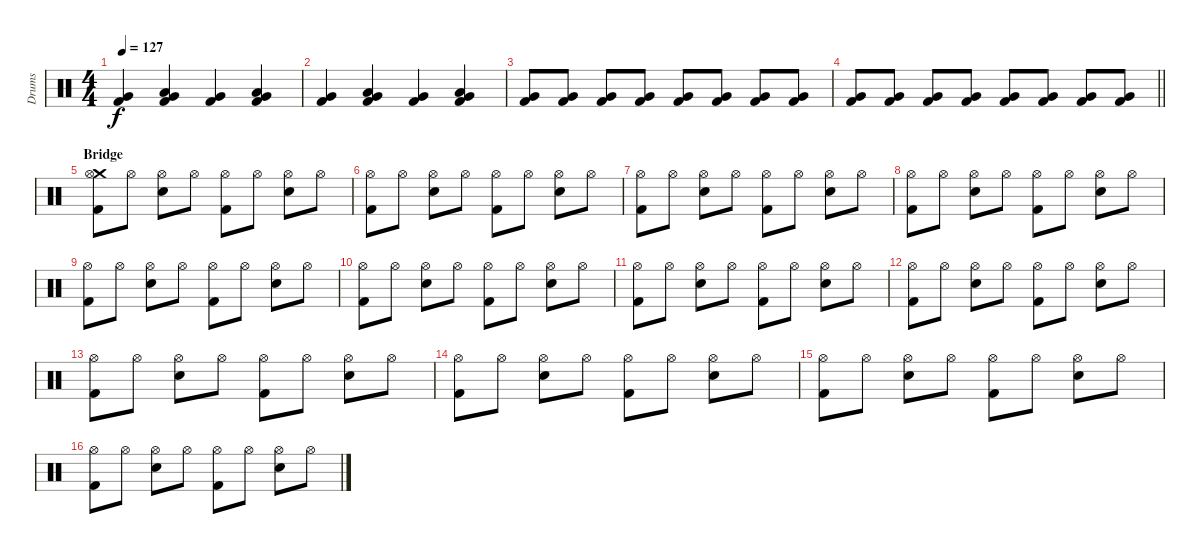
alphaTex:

\track ("Drums" "Drums") {instrument percussion}
\staff {score}
\articulation defaults
\ts (4 4)
\tempo 127
\clef neutral
\ks c
("Very Low Tom (hit)" "Kick (hit) 2").4{dy f} ("Low Floor Tom (hit)" "Very Low Tom (hit)" "Kick (hit) 2").4 ("Very Low Tom (hit)" "Kick (hit) 2").4 ("Low Floor Tom (hit)" "Very Low Tom (hit)" "Kick (hit) 2").4 |
("Very Low Tom (hit)" "Kick (hit) 2").4 ("Low Floor Tom (hit)" "Very Low Tom (hit)" "Kick (hit) 2").4 ("Very Low Tom (hit)" "Kick (hit) 2").4 ("Low Floor Tom (hit)" "Very Low Tom (hit)" "Kick (hit) 2").4 |
("Very Low Tom (hit)" "Kick (hit) 2").8 ("Very Low Tom (hit)" "Kick (hit) 2").8 ("Very Low Tom (hit)" "Kick (hit) 2").8 ("Very Low Tom (hit)" "Kick (hit) 2").8 ("Very Low Tom (hit)" "Kick (hit) 2").8 ("Very Low Tom (hit)" "Kick (hit) 2").8 ("Very Low Tom (hit)" "Kick (hit) 2").8 ("Very Low Tom (hit)" "Kick (hit) 2").8 |
\barLineRight lightlight
("Very Low Tom (hit)" "Kick (hit) 2").8 ("Very Low Tom (hit)" "Kick (hit) 2").8 ("Very Low Tom (hit)" "Kick (hit) 2").8 ("Very Low Tom (hit)" "Kick (hit) 2").8 ("Very Low Tom (hit)" "Kick (hit) 2").8 ("Very Low Tom (hit)" "Kick (hit) 2").8 ("Very Low Tom (hit)" "Kick (hit) 2").8 ("Very Low Tom (hit)" "Kick (hit) 2").8 |
\section ("" "Bridge")
("Crash medium (hit)" "Hi-Hat (open)" "Kick (hit) 2").8 "Hi-Hat (open)".8 ("Hi-Hat (open)" "Electric Snare (hit)").8 "Hi-Hat (open)".8 ("Hi-Hat (open)" "Kick (hit) 2").8 "Hi-Hat (open)".8 ("Hi-Hat (open)" "Electric Snare (hit)").8 "Hi-Hat (open)".8 |
("Hi-Hat (open)" "Kick (hit) 2").8 "Hi-Hat (open)".8 ("Hi-Hat (open)" "Electric Snare (hit)").8 "Hi-Hat (open)".8 ("Hi-Hat (open)" "Kick (hit) 2").8 "Hi-Hat (open)".8 ("Hi-Hat (open)" "Electric Snare (hit)").8 "Hi-Hat (open)".8 |
("Hi-Hat (open)" "Kick (hit) 2").8 "Hi-Hat (open)".8 ("Hi-Hat (open)" "Electric Snare (hit)").8 "Hi-Hat (open)".8 ("Hi-Hat (open)" "Kick (hit) 2").8 "Hi-Hat (open)".8 ("Hi-Hat (open)" "Electric Snare (hit)").8 "Hi-Hat (open)".8 |
("Hi-Hat (open)" "Kick (hit) 2").8 "Hi-Hat (open)".8 ("Hi-Hat (open)" "Electric Snare (hit)").8 "Hi-Hat (open)".8 ("Hi-Hat (open)" "Kick (hit) 2").8 "Hi-Hat (open)".8 ("Hi-Hat (open)" "Electric Snare (hit)").8 "Hi-Hat (open)".8 |
("Hi-Hat (open)" "Kick (hit) 2").8 "Hi-Hat (open)".8 ("Hi-Hat (open)" "Electric Snare (hit)").8 "Hi-Hat (open)".8 ("Hi-Hat (open)" "Kick (hit) 2").8 "Hi-Hat (open)".8 ("Hi-Hat (open)" "Electric Snare (hit)").8 "Hi-Hat (open)".8 |
("Hi-Hat (open)" "Kick (hit) 2").8 "Hi-Hat (open)".8 ("Hi-Hat (open)" "Electric Snare (hit)").8 "Hi-Hat (open)".8 ("Hi-Hat (open)" "Kick (hit) 2").8 "Hi-Hat (open)".8 ("Hi-Hat (open)" "Electric Snare (hit)").8 "Hi-Hat (open)".8 |
("Hi-Hat (open)" "Kick (hit) 2").8 "Hi-Hat (open)".8 ("Hi-Hat (open)" "Electric Snare (hit)").8 "Hi-Hat (open)".8 ("Hi-Hat (open)" "Kick (hit) 2").8 "Hi-Hat (open)".8 ("Hi-Hat (open)" "Electric Snare (hit)").8 "Hi-Hat (open)".8 |
("Hi-Hat (open)" "Kick (hit) 2").8 "Hi-Hat (open)".8 ("Hi-Hat (open)" "Electric Snare (hit)").8 "Hi-Hat (open)".8 ("Hi-Hat (open)" "Kick (hit) 2").8 "Hi-Hat (open)".8 ("Hi-Hat (open)" "Electric Snare (hit)").8 "Hi-Hat (open)".8 |
("Hi-Hat (open)" "Kick (hit) 2").8 "Hi-Hat (open)".8 ("Hi-Hat (open)" "Electric Snare (hit)").8 "Hi-Hat (open)".8 ("Hi-Hat (open)" "Kick (hit) 2").8 "Hi-Hat (open)".8 ("Hi-Hat (open)" "Electric Snare (hit)").8 "Hi-Hat (open)".8 |
("Hi-Hat (open)" "Kick (hit) 2").8 "Hi-Hat (open)".8 ("Hi-Hat (open)" "Electric Snare (hit)").8 "Hi-Hat (open)".8 ("Hi-Hat (open)" "Kick (hit) 2").8 "Hi-Hat (open)".8 ("Hi-Hat (open)" "Electric Snare (hit)").8 "Hi-Hat (open)".8 |
("Hi-Hat (open)" "Kick (hit) 2").8 "Hi-Hat (open)".8 ("Hi-Hat (open)" "Electric Snare (hit)").8 "Hi-Hat (open)".8 ("Hi-Hat (open)" "Kick (hit) 2").8 "Hi-Hat (open)".8 ("Hi-Hat (open)" "Electric Snare (hit)").8 "Hi-Hat (open)".8 |
("Hi-Hat (open)" "Kick (hit) 2").8 "Hi-Hat (open)".8 ("Hi-Hat (open)" "Electric Snare (hit)").8 "Hi-Hat (open)".8 ("Hi-Hat (open)" "Kick (hit) 2").8 "Hi-Hat (open)".8 ("Hi-Hat (open)" "Electric Snare (hit)").8 "Hi-Hat (open)".8
